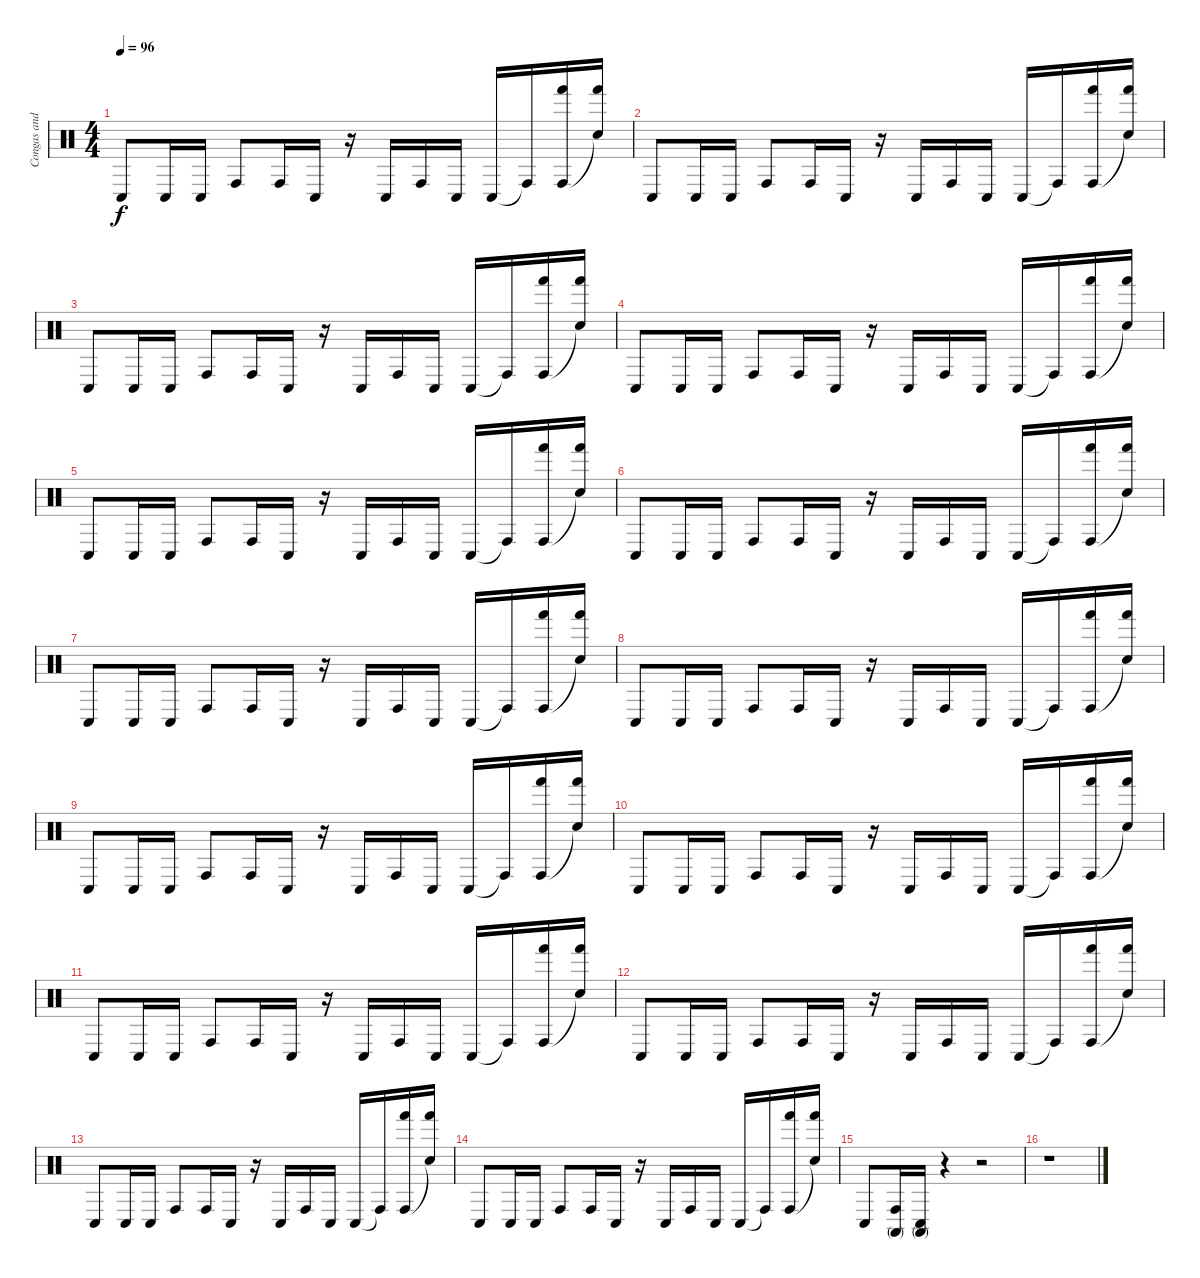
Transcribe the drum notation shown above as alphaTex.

\track ("Congas and Bongos" "Congas and") {instrument percussion}
\staff {score}
\articulation defaults
\ts (4 4)
\tempo 96
\clef neutral
\ks c "Conga low (hit)".8{dy f} "Conga low (hit)".16 "Conga low (hit)".16 "Conga high (hit)".8 "Conga high (hit)".16 "Conga low (hit)".16
r.16 "Conga low (hit)".16 "Conga high (hit)".16 "Conga low (hit)".16 "Conga low (hit)".16 "Conga high (hit)"{t}.16 ("Conga high (hit)" "Hand (hit)").16 ("Snare (hit)"{t} "Hand (hit)").16 |
"Conga low (hit)".8 "Conga low (hit)".16 "Conga low (hit)".16 "Conga high (hit)".8 "Conga high (hit)".16 "Conga low (hit)".16 r.16 "Conga low (hit)".16 "Conga high (hit)".16 "Conga low (hit)".16 "Conga low (hit)".16 "Conga high (hit)"{t}.16 ("Conga high (hit)" "Hand (hit)").16 ("Snare (hit)"{t} "Hand (hit)").16 |
"Conga low (hit)".8 "Conga low (hit)".16 "Conga low (hit)".16 "Conga high (hit)".8 "Conga high (hit)".16 "Conga low (hit)".16 r.16 "Conga low (hit)".16 "Conga high (hit)".16 "Conga low (hit)".16 "Conga low (hit)".16 "Conga high (hit)"{t}.16 ("Conga high (hit)" "Hand (hit)").16 ("Snare (hit)"{t} "Hand (hit)").16 |
"Conga low (hit)".8 "Conga low (hit)".16 "Conga low (hit)".16 "Conga high (hit)".8 "Conga high (hit)".16 "Conga low (hit)".16 r.16 "Conga low (hit)".16 "Conga high (hit)".16 "Conga low (hit)".16 "Conga low (hit)".16 "Conga high (hit)"{t}.16 ("Conga high (hit)" "Hand (hit)").16 ("Snare (hit)"{t} "Hand (hit)").16 |
"Conga low (hit)".8 "Conga low (hit)".16 "Conga low (hit)".16 "Conga high (hit)".8 "Conga high (hit)".16 "Conga low (hit)".16 r.16 "Conga low (hit)".16 "Conga high (hit)".16 "Conga low (hit)".16 "Conga low (hit)".16 "Conga high (hit)"{t}.16 ("Conga high (hit)" "Hand (hit)").16 ("Snare (hit)"{t} "Hand (hit)").16 |
"Conga low (hit)".8 "Conga low (hit)".16 "Conga low (hit)".16 "Conga high (hit)".8 "Conga high (hit)".16 "Conga low (hit)".16 r.16 "Conga low (hit)".16 "Conga high (hit)".16 "Conga low (hit)".16 "Conga low (hit)".16 "Conga high (hit)"{t}.16 ("Conga high (hit)" "Hand (hit)").16 ("Snare (hit)"{t} "Hand (hit)").16 |
"Conga low (hit)".8 "Conga low (hit)".16 "Conga low (hit)".16 "Conga high (hit)".8 "Conga high (hit)".16 "Conga low (hit)".16 r.16 "Conga low (hit)".16 "Conga high (hit)".16 "Conga low (hit)".16 "Conga low (hit)".16 "Conga high (hit)"{t}.16 ("Conga high (hit)" "Hand (hit)").16 ("Snare (hit)"{t} "Hand (hit)").16 |
"Conga low (hit)".8 "Conga low (hit)".16 "Conga low (hit)".16 "Conga high (hit)".8 "Conga high (hit)".16 "Conga low (hit)".16 r.16 "Conga low (hit)".16 "Conga high (hit)".16 "Conga low (hit)".16 "Conga low (hit)".16 "Conga high (hit)"{t}.16 ("Conga high (hit)" "Hand (hit)").16 ("Snare (hit)"{t} "Hand (hit)").16 |
"Conga low (hit)".8 "Conga low (hit)".16 "Conga low (hit)".16 "Conga high (hit)".8 "Conga high (hit)".16 "Conga low (hit)".16 r.16 "Conga low (hit)".16 "Conga high (hit)".16 "Conga low (hit)".16 "Conga low (hit)".16 "Conga high (hit)"{t}.16 ("Conga high (hit)" "Hand (hit)").16 ("Snare (hit)"{t} "Hand (hit)").16 |
"Conga low (hit)".8 "Conga low (hit)".16 "Conga low (hit)".16 "Conga high (hit)".8 "Conga high (hit)".16 "Conga low (hit)".16 r.16 "Conga low (hit)".16 "Conga high (hit)".16 "Conga low (hit)".16 "Conga low (hit)".16 "Conga high (hit)"{t}.16 ("Conga high (hit)" "Hand (hit)").16 ("Snare (hit)"{t} "Hand (hit)").16 |
"Conga low (hit)".8 "Conga low (hit)".16 "Conga low (hit)".16 "Conga high (hit)".8 "Conga high (hit)".16 "Conga low (hit)".16 r.16 "Conga low (hit)".16 "Conga high (hit)".16 "Conga low (hit)".16 "Conga low (hit)".16 "Conga high (hit)"{t}.16 ("Conga high (hit)" "Hand (hit)").16 ("Snare (hit)"{t} "Hand (hit)").16 |
"Conga low (hit)".8 "Conga low (hit)".16 "Conga low (hit)".16 "Conga high (hit)".8 "Conga high (hit)".16 "Conga low (hit)".16 r.16 "Conga low (hit)".16 "Conga high (hit)".16 "Conga low (hit)".16 "Conga low (hit)".16 "Conga high (hit)"{t}.16 ("Conga high (hit)" "Hand (hit)").16 ("Snare (hit)"{t} "Hand (hit)").16 |
"Conga low (hit)".8 "Conga low (hit)".16 "Conga low (hit)".16 "Conga high (hit)".8 "Conga high (hit)".16 "Conga low (hit)".16 r.16 "Conga low (hit)".16 "Conga high (hit)".16 "Conga low (hit)".16 "Conga low (hit)".16 "Conga high (hit)"{t}.16 ("Conga high (hit)" "Hand (hit)").16 ("Snare (hit)"{t} "Hand (hit)").16 |
"Conga low (hit)".8 "Conga low (hit)".16 "Conga low (hit)".16 "Conga high (hit)".8 "Conga high (hit)".16 "Conga low (hit)".16 r.16 "Conga low (hit)".16 "Conga high (hit)".16 "Conga low (hit)".16 "Conga low (hit)".16 "Conga high (hit)"{t}.16 ("Conga high (hit)" "Hand (hit)").16 ("Snare (hit)"{t} "Hand (hit)").16 |
"Conga low (hit)".8 ("Conga high (hit)" "Conga high (mute)").16 ("Conga low (hit)" "Conga high (mute)").16 r.4 r.2 |
r.1
